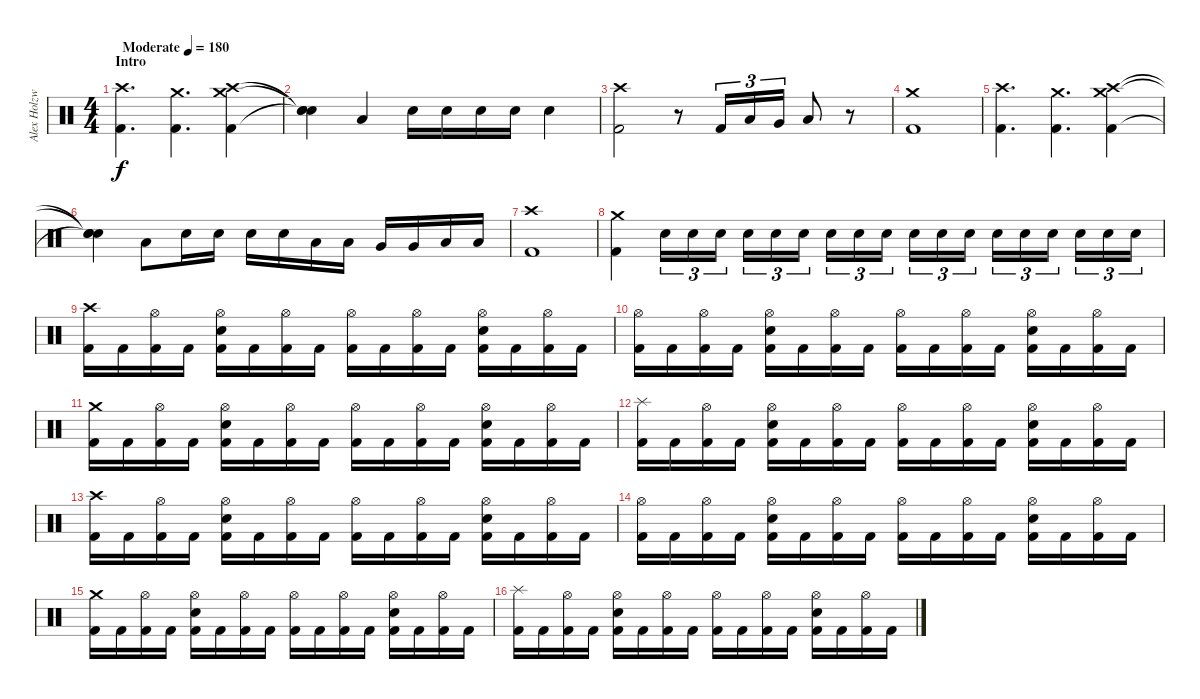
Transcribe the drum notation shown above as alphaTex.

\track ("Alex Holzwarth" "Alex Holzw") {instrument percussion}
\staff {score}
\articulation defaults
\ts (4 4)
\section ("" "Intro")
\tempo (180 "Moderate")
\clef neutral
\ks c
("Crash high (hit)" "Kick (hit) 2").4{d dy f} ("Crash medium (hit)" "Kick (hit) 2").4{d} ("Crash high (hit)" "Crash medium (hit)" "Kick (hit) 2").4 |
("Snare (hit)"{t} "Snare (hit)"{t} "Snare (hit)"{t}).4 "Low Floor Tom (hit)".4 "Electric Snare (hit)".16 "Electric Snare (hit)".16 "Electric Snare (hit)".16 "Electric Snare (hit)".16 "Electric Snare (hit)".4 |
("Crash high (hit)" "Kick (hit) 2").2 r.8 "Kick (hit) 2".16{tu (3 2)} "Low Tom (hit)".16{tu (3 2)} "Very Low Tom (hit)".16{tu (3 2)} "Low Floor Tom (hit)".8 r.8 |
("Crash medium (hit)" "Kick (hit) 2").1 |
("Crash high (hit)" "Kick (hit) 2").4{d} ("Crash medium (hit)" "Kick (hit) 2").4{d} ("Crash high (hit)" "Crash medium (hit)" "Kick (hit) 2").4 |
("Snare (hit)"{t} "Snare (hit)"{t} "Snare (hit)"{t}).4 "Low Floor Tom (hit)".8 "Electric Snare (hit)".16 "Electric Snare (hit)".16 "Electric Snare (hit)".16 "Electric Snare (hit)".16 "Low Tom (hit)".16 "Low Tom (hit)".16 "Very Low Tom (hit)".16 "Very Low Tom (hit)".16 "Low Floor Tom (hit)".16 "Low Floor Tom (hit)".16 |
("Crash high (hit)" "Kick (hit) 2").1 |
("Crash medium (hit)" "Kick (hit) 2").4{volume 0} "Electric Snare (hit)".16{tu (3 2) volume 16} "Electric Snare (hit)".16{tu (3 2)} "Electric Snare (hit)".16{tu (3 2) beam splitsecondary} "Electric Snare (hit)".16{tu (3 2)} "Electric Snare (hit)".16{tu (3 2)} "Electric Snare (hit)".16{tu (3 2)} "Electric Snare (hit)".16{tu (3 2)} "Electric Snare (hit)".16{tu (3 2)} "Electric Snare (hit)".16{tu (3 2) beam splitsecondary} "Electric Snare (hit)".16{tu (3 2)} "Electric Snare (hit)".16{tu (3 2)} "Electric Snare (hit)".16{tu (3 2)} "Electric Snare (hit)".16{tu (3 2)} "Electric Snare (hit)".16{tu (3 2)} "Electric Snare (hit)".16{tu (3 2) beam splitsecondary} "Electric Snare (hit)".16{tu (3 2)} "Electric Snare (hit)".16{tu (3 2)} "Electric Snare (hit)".16{tu (3 2)} |
("Crash high (hit)" "Kick (hit) 2").16 "Kick (hit) 2".16 ("Hi-Hat (open)" "Kick (hit) 2").16 "Kick (hit) 2".16 ("Hi-Hat (open)" "Electric Snare (hit)" "Kick (hit) 2").16 "Kick (hit) 2".16 ("Hi-Hat (open)" "Kick (hit) 2").16 "Kick (hit) 2".16 ("Hi-Hat (open)" "Kick (hit) 2").16 "Kick (hit) 2".16 ("Hi-Hat (open)" "Kick (hit) 2").16 "Kick (hit) 2".16 ("Hi-Hat (open)" "Electric Snare (hit)" "Kick (hit) 2").16 "Kick (hit) 2".16 ("Hi-Hat (open)" "Kick (hit) 2").16 "Kick (hit) 2".16 |
("Hi-Hat (open)" "Kick (hit) 2").16 "Kick (hit) 2".16 ("Hi-Hat (open)" "Kick (hit) 2").16 "Kick (hit) 2".16 ("Hi-Hat (open)" "Electric Snare (hit)" "Kick (hit) 2").16 "Kick (hit) 2".16 ("Hi-Hat (open)" "Kick (hit) 2").16 "Kick (hit) 2".16 ("Hi-Hat (open)" "Kick (hit) 2").16 "Kick (hit) 2".16 ("Hi-Hat (open)" "Kick (hit) 2").16 "Kick (hit) 2".16 ("Hi-Hat (open)" "Electric Snare (hit)" "Kick (hit) 2").16 "Kick (hit) 2".16 ("Hi-Hat (open)" "Kick (hit) 2").16 "Kick (hit) 2".16 |
("Crash medium (hit)" "Kick (hit) 2").16 "Kick (hit) 2".16 ("Hi-Hat (open)" "Kick (hit) 2").16 "Kick (hit) 2".16 ("Hi-Hat (open)" "Electric Snare (hit)" "Kick (hit) 2").16 "Kick (hit) 2".16 ("Hi-Hat (open)" "Kick (hit) 2").16 "Kick (hit) 2".16 ("Hi-Hat (open)" "Kick (hit) 2").16 "Kick (hit) 2".16 ("Hi-Hat (open)" "Kick (hit) 2").16 "Kick (hit) 2".16 ("Hi-Hat (open)" "Electric Snare (hit)" "Kick (hit) 2").16 "Kick (hit) 2".16 ("Hi-Hat (open)" "Kick (hit) 2").16 "Kick (hit) 2".16 |
("Splash (hit)" "Kick (hit) 2").16 "Kick (hit) 2".16 ("Hi-Hat (open)" "Kick (hit) 2").16 "Kick (hit) 2".16 ("Hi-Hat (open)" "Electric Snare (hit)" "Kick (hit) 2").16 "Kick (hit) 2".16 ("Hi-Hat (open)" "Kick (hit) 2").16 "Kick (hit) 2".16 ("Hi-Hat (open)" "Kick (hit) 2").16 "Kick (hit) 2".16 ("Hi-Hat (open)" "Kick (hit) 2").16 "Kick (hit) 2".16 ("Hi-Hat (open)" "Electric Snare (hit)" "Kick (hit) 2").16 "Kick (hit) 2".16 ("Hi-Hat (open)" "Kick (hit) 2").16 "Kick (hit) 2".16 |
("Crash high (hit)" "Kick (hit) 2").16 "Kick (hit) 2".16 ("Hi-Hat (open)" "Kick (hit) 2").16 "Kick (hit) 2".16 ("Hi-Hat (open)" "Electric Snare (hit)" "Kick (hit) 2").16 "Kick (hit) 2".16 ("Hi-Hat (open)" "Kick (hit) 2").16 "Kick (hit) 2".16 ("Hi-Hat (open)" "Kick (hit) 2").16 "Kick (hit) 2".16 ("Hi-Hat (open)" "Kick (hit) 2").16 "Kick (hit) 2".16 ("Hi-Hat (open)" "Electric Snare (hit)" "Kick (hit) 2").16 "Kick (hit) 2".16 ("Hi-Hat (open)" "Kick (hit) 2").16 "Kick (hit) 2".16 |
("Hi-Hat (open)" "Kick (hit) 2").16 "Kick (hit) 2".16 ("Hi-Hat (open)" "Kick (hit) 2").16 "Kick (hit) 2".16 ("Hi-Hat (open)" "Electric Snare (hit)" "Kick (hit) 2").16 "Kick (hit) 2".16 ("Hi-Hat (open)" "Kick (hit) 2").16 "Kick (hit) 2".16 ("Hi-Hat (open)" "Kick (hit) 2").16 "Kick (hit) 2".16 ("Hi-Hat (open)" "Kick (hit) 2").16 "Kick (hit) 2".16 ("Hi-Hat (open)" "Electric Snare (hit)" "Kick (hit) 2").16 "Kick (hit) 2".16 ("Hi-Hat (open)" "Kick (hit) 2").16 "Kick (hit) 2".16 |
("Crash medium (hit)" "Kick (hit) 2").16 "Kick (hit) 2".16 ("Hi-Hat (open)" "Kick (hit) 2").16 "Kick (hit) 2".16 ("Hi-Hat (open)" "Electric Snare (hit)" "Kick (hit) 2").16 "Kick (hit) 2".16 ("Hi-Hat (open)" "Kick (hit) 2").16 "Kick (hit) 2".16 ("Hi-Hat (open)" "Kick (hit) 2").16 "Kick (hit) 2".16 ("Hi-Hat (open)" "Kick (hit) 2").16 "Kick (hit) 2".16 ("Hi-Hat (open)" "Electric Snare (hit)" "Kick (hit) 2").16 "Kick (hit) 2".16 ("Hi-Hat (open)" "Kick (hit) 2").16 "Kick (hit) 2".16 |
("Splash (hit)" "Kick (hit) 2").16 "Kick (hit) 2".16 ("Hi-Hat (open)" "Kick (hit) 2").16 "Kick (hit) 2".16 ("Hi-Hat (open)" "Electric Snare (hit)" "Kick (hit) 2").16 "Kick (hit) 2".16 ("Hi-Hat (open)" "Kick (hit) 2").16 "Kick (hit) 2".16 ("Hi-Hat (open)" "Kick (hit) 2").16 "Kick (hit) 2".16 ("Hi-Hat (open)" "Kick (hit) 2").16 "Kick (hit) 2".16 ("Hi-Hat (open)" "Electric Snare (hit)" "Kick (hit) 2").16 "Kick (hit) 2".16 ("Hi-Hat (open)" "Kick (hit) 2").16 "Kick (hit) 2".16
